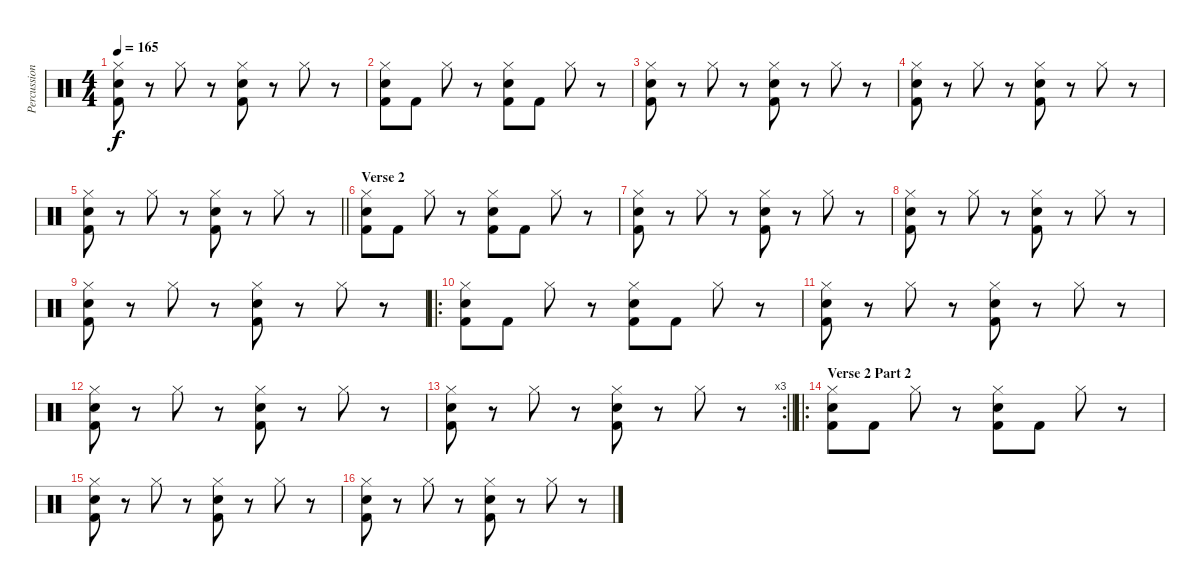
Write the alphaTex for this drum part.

\track ("Percussion" "Percussion") {instrument percussion}
\staff {score}
\articulation defaults
\ts (4 4)
\tempo 165
\clef neutral
\ks c
("Snare (hit) 2" "Kick (hit) 2" "Hi-Hat (closed)").8{dy f} r.8 "Hi-Hat (closed)".8 r.8 ("Snare (hit) 2" "Kick (hit) 2" "Hi-Hat (closed)").8 r.8 "Hi-Hat (closed)".8 r.8 |
("Snare (hit) 2" "Kick (hit) 2" "Hi-Hat (closed)").8{volume 16} "Kick (hit) 2".8 "Hi-Hat (closed)".8 r.8 ("Snare (hit) 2" "Kick (hit) 2" "Hi-Hat (closed)").8 "Kick (hit) 2".8 "Hi-Hat (closed)".8 r.8 |
("Snare (hit) 2" "Kick (hit) 2" "Hi-Hat (closed)").8 r.8 "Hi-Hat (closed)".8 r.8 ("Snare (hit) 2" "Kick (hit) 2" "Hi-Hat (closed)").8 r.8 "Hi-Hat (closed)".8 r.8 |
("Snare (hit) 2" "Kick (hit) 2" "Hi-Hat (closed)").8 r.8 "Hi-Hat (closed)".8 r.8 ("Snare (hit) 2" "Kick (hit) 2" "Hi-Hat (closed)").8 r.8 "Hi-Hat (closed)".8 r.8 |
\barLineRight lightlight
("Snare (hit) 2" "Kick (hit) 2" "Hi-Hat (closed)").8 r.8 "Hi-Hat (closed)".8 r.8 ("Snare (hit) 2" "Kick (hit) 2" "Hi-Hat (closed)").8 r.8 "Hi-Hat (closed)".8 r.8 |
\section ("" "Verse 2")
("Snare (hit) 2" "Kick (hit) 2" "Hi-Hat (closed)").8{volume 16} "Kick (hit) 2".8 "Hi-Hat (closed)".8 r.8 ("Snare (hit) 2" "Kick (hit) 2" "Hi-Hat (closed)").8 "Kick (hit) 2".8 "Hi-Hat (closed)".8 r.8 |
("Snare (hit) 2" "Kick (hit) 2" "Hi-Hat (closed)").8 r.8 "Hi-Hat (closed)".8 r.8 ("Snare (hit) 2" "Kick (hit) 2" "Hi-Hat (closed)").8 r.8 "Hi-Hat (closed)".8 r.8 |
("Snare (hit) 2" "Kick (hit) 2" "Hi-Hat (closed)").8 r.8 "Hi-Hat (closed)".8 r.8 ("Snare (hit) 2" "Kick (hit) 2" "Hi-Hat (closed)").8 r.8 "Hi-Hat (closed)".8 r.8 |
("Snare (hit) 2" "Kick (hit) 2" "Hi-Hat (closed)").8 r.8 "Hi-Hat (closed)".8 r.8 ("Snare (hit) 2" "Kick (hit) 2" "Hi-Hat (closed)").8 r.8 "Hi-Hat (closed)".8 r.8 |
\ro
("Snare (hit) 2" "Kick (hit) 2" "Hi-Hat (closed)").8{volume 16} "Kick (hit) 2".8 "Hi-Hat (closed)".8 r.8 ("Snare (hit) 2" "Kick (hit) 2" "Hi-Hat (closed)").8 "Kick (hit) 2".8 "Hi-Hat (closed)".8 r.8 |
("Snare (hit) 2" "Kick (hit) 2" "Hi-Hat (closed)").8 r.8 "Hi-Hat (closed)".8 r.8 ("Snare (hit) 2" "Kick (hit) 2" "Hi-Hat (closed)").8 r.8 "Hi-Hat (closed)".8 r.8 |
("Snare (hit) 2" "Kick (hit) 2" "Hi-Hat (closed)").8 r.8 "Hi-Hat (closed)".8 r.8 ("Snare (hit) 2" "Kick (hit) 2" "Hi-Hat (closed)").8 r.8 "Hi-Hat (closed)".8 r.8 |
\rc 3
\barLineRight lightlight
("Snare (hit) 2" "Kick (hit) 2" "Hi-Hat (closed)").8 r.8 "Hi-Hat (closed)".8 r.8 ("Snare (hit) 2" "Kick (hit) 2" "Hi-Hat (closed)").8 r.8 "Hi-Hat (closed)".8 r.8 |
\ro
\section ("" "Verse 2 Part 2")
("Snare (hit) 2" "Kick (hit) 2" "Hi-Hat (closed)").8{volume 16} "Kick (hit) 2".8 "Hi-Hat (closed)".8 r.8 ("Snare (hit) 2" "Kick (hit) 2" "Hi-Hat (closed)").8 "Kick (hit) 2".8 "Hi-Hat (closed)".8 r.8 |
("Snare (hit) 2" "Kick (hit) 2" "Hi-Hat (closed)").8 r.8 "Hi-Hat (closed)".8 r.8 ("Snare (hit) 2" "Kick (hit) 2" "Hi-Hat (closed)").8 r.8 "Hi-Hat (closed)".8 r.8 |
("Snare (hit) 2" "Kick (hit) 2" "Hi-Hat (closed)").8 r.8 "Hi-Hat (closed)".8 r.8 ("Snare (hit) 2" "Kick (hit) 2" "Hi-Hat (closed)").8 r.8 "Hi-Hat (closed)".8 r.8
